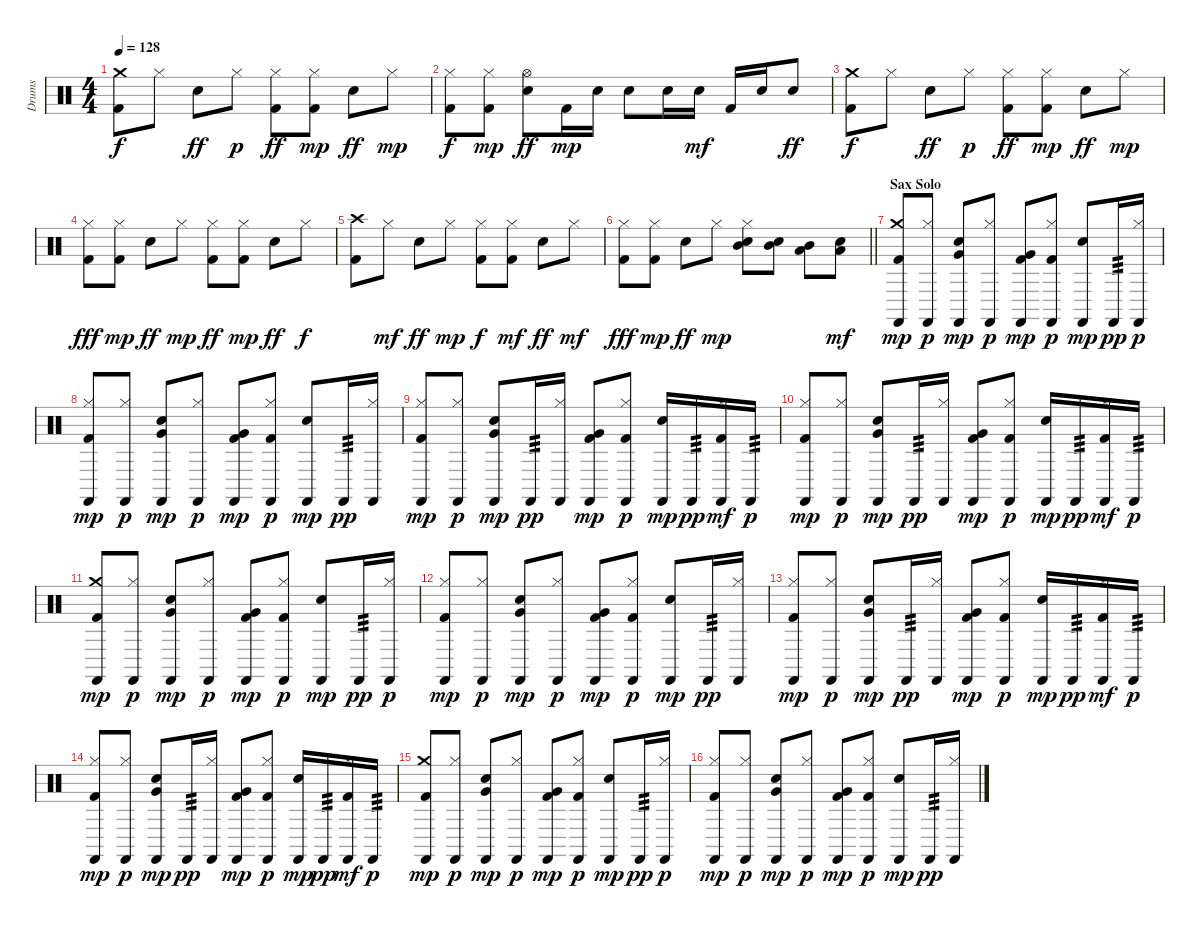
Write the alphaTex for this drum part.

\track ("Drums" "Drums") {instrument percussion}
\staff {score}
\articulation defaults
\ts (4 4)
\tempo 128
\clef neutral
\ks c
("Kick (hit) 2" "Crash medium (hit)").8{dy f} "Hi-Hat (closed)".8 "Electric Snare (hit)".8{dy ff} "Hi-Hat (closed)".8{dy p} ("Kick (hit) 2" "Hi-Hat (closed)").8{dy ff} ("Kick (hit) 2" "Hi-Hat (closed)").8{dy mp} "Electric Snare (hit)".8{dy ff} "Hi-Hat (closed)".8{dy mp} |
("Kick (hit) 2" "Hi-Hat (closed)").8{dy f} ("Kick (hit) 2" "Hi-Hat (closed)").8{dy mp} ("Electric Snare (hit)" "Hi-Hat (open)").8{dy ff} "Kick (hit) 2".16{dy mp} "Electric Snare (hit)".16 "Electric Snare (hit)".8 "Electric Snare (hit)".16 "Electric Snare (hit)".16{dy mf} "Kick (hit) 2".16 "Electric Snare (hit)".16 "Electric Snare (hit)".8{dy ff} |
("Kick (hit) 2" "Crash medium (hit)").8{dy f} "Hi-Hat (closed)".8 "Electric Snare (hit)".8{dy ff} "Hi-Hat (closed)".8{dy p} ("Kick (hit) 2" "Hi-Hat (closed)").8{dy ff} ("Kick (hit) 2" "Hi-Hat (closed)").8{dy mp} "Electric Snare (hit)".8{dy ff} "Hi-Hat (closed)".8{dy mp} |
("Kick (hit) 2" "Hi-Hat (closed)").8{dy fff} ("Kick (hit) 2" "Hi-Hat (closed)").8{dy mp} "Electric Snare (hit)".8{dy ff} "Hi-Hat (closed)".8{dy mp} ("Kick (hit) 2" "Hi-Hat (closed)").8{dy ff} ("Kick (hit) 2" "Hi-Hat (closed)").8{dy mp} "Electric Snare (hit)".8{dy ff} "Hi-Hat (closed)".8{dy f} |
("Kick (hit) 2" "Crash high (hit)").8 "Hi-Hat (closed)".8{dy mf} "Electric Snare (hit)".8{dy ff} "Hi-Hat (closed)".8{dy mp} ("Kick (hit) 2" "Hi-Hat (closed)").8{dy f} ("Kick (hit) 2" "Hi-Hat (closed)").8{dy mf} "Electric Snare (hit)".8{dy ff} "Hi-Hat (closed)".8{dy mf} |
\barLineRight lightlight
("Kick (hit) 2" "Hi-Hat (closed)").8{dy fff} ("Kick (hit) 2" "Hi-Hat (closed)").8{dy mp} "Electric Snare (hit)".8{dy ff} "Hi-Hat (closed)".8{dy mp} ("Electric Snare (hit)" "Hi-Hat (closed)" "Mid Tom (hit)").8 ("Electric Snare (hit)" "Mid Tom (hit)").8 ("Low Tom (hit)" "Mid Tom (hit)").8 ("Electric Snare (hit)" "Low Tom (hit)").8{dy mf} |
\section ("" "Sax Solo")
("Kick (hit) 2" "Crash medium (hit)" "Castanets (hit)").8{dy mp} ("Hi-Hat (closed)" "Castanets (hit)").8{dy p} ("Electric Snare (hit)" "Very Low Tom (hit)" "Castanets (hit)").8{dy mp} ("Hi-Hat (closed)" "Castanets (hit)").8{dy p} ("Kick (hit) 2" "Very Low Tom (hit)" "Castanets (hit)").8{dy mp} ("Kick (hit) 2" "Hi-Hat (closed)" "Castanets (hit)").8{dy p} ("Electric Snare (hit)" "Castanets (hit)").8{dy mp} "Castanets (hit)".16{tp 3 dy pp} ("Hi-Hat (closed)" "Castanets (hit)").16{dy p} |
("Kick (hit) 2" "Hi-Hat (closed)" "Castanets (hit)").8{dy mp} ("Hi-Hat (closed)" "Castanets (hit)").8{dy p} ("Electric Snare (hit)" "Very Low Tom (hit)" "Castanets (hit)").8{dy mp} ("Hi-Hat (closed)" "Castanets (hit)").8{dy p} ("Kick (hit) 2" "Very Low Tom (hit)" "Castanets (hit)").8{dy mp} ("Kick (hit) 2" "Hi-Hat (closed)" "Castanets (hit)").8{dy p} ("Electric Snare (hit)" "Castanets (hit)").8{dy mp} "Castanets (hit)".16{tp 3 dy pp} ("Hi-Hat (closed)" "Castanets (hit)").16 |
("Kick (hit) 2" "Hi-Hat (closed)" "Castanets (hit)").8{dy mp} ("Hi-Hat (closed)" "Castanets (hit)").8{dy p} ("Electric Snare (hit)" "Very Low Tom (hit)" "Castanets (hit)").8{dy mp} "Castanets (hit)".16{tp 3 dy pp} ("Hi-Hat (closed)" "Castanets (hit)").16 ("Kick (hit) 2" "Very Low Tom (hit)" "Castanets (hit)").8{dy mp} ("Kick (hit) 2" "Hi-Hat (closed)" "Castanets (hit)").8{dy p} ("Electric Snare (hit)" "Castanets (hit)").16{dy mp} "Castanets (hit)".16{tp 3 dy pp} ("Kick (hit) 2" "Hi-Hat (closed)" "Castanets (hit)").16{dy mf} "Castanets (hit)".16{tp 3 dy p} |
("Kick (hit) 2" "Hi-Hat (closed)" "Castanets (hit)").8{dy mp} ("Hi-Hat (closed)" "Castanets (hit)").8{dy p} ("Electric Snare (hit)" "Very Low Tom (hit)" "Castanets (hit)").8{dy mp} "Castanets (hit)".16{tp 3 dy pp} ("Hi-Hat (closed)" "Castanets (hit)").16 ("Kick (hit) 2" "Very Low Tom (hit)" "Castanets (hit)").8{dy mp} ("Kick (hit) 2" "Hi-Hat (closed)" "Castanets (hit)").8{dy p} ("Electric Snare (hit)" "Castanets (hit)").16{dy mp} "Castanets (hit)".16{tp 3 dy pp} ("Kick (hit) 2" "Hi-Hat (closed)" "Castanets (hit)").16{dy mf} "Castanets (hit)".16{tp 3 dy p} |
("Kick (hit) 2" "Crash medium (hit)" "Castanets (hit)").8{dy mp} ("Hi-Hat (closed)" "Castanets (hit)").8{dy p} ("Electric Snare (hit)" "Very Low Tom (hit)" "Castanets (hit)").8{dy mp} ("Hi-Hat (closed)" "Castanets (hit)").8{dy p} ("Kick (hit) 2" "Very Low Tom (hit)" "Castanets (hit)").8{dy mp} ("Kick (hit) 2" "Hi-Hat (closed)" "Castanets (hit)").8{dy p} ("Electric Snare (hit)" "Castanets (hit)").8{dy mp} "Castanets (hit)".16{tp 3 dy pp} ("Hi-Hat (closed)" "Castanets (hit)").16{dy p} |
("Kick (hit) 2" "Hi-Hat (closed)" "Castanets (hit)").8{dy mp} ("Hi-Hat (closed)" "Castanets (hit)").8{dy p} ("Electric Snare (hit)" "Very Low Tom (hit)" "Castanets (hit)").8{dy mp} ("Hi-Hat (closed)" "Castanets (hit)").8{dy p} ("Kick (hit) 2" "Very Low Tom (hit)" "Castanets (hit)").8{dy mp} ("Kick (hit) 2" "Hi-Hat (closed)" "Castanets (hit)").8{dy p} ("Electric Snare (hit)" "Castanets (hit)").8{dy mp} "Castanets (hit)".16{tp 3 dy pp} ("Hi-Hat (closed)" "Castanets (hit)").16 |
("Kick (hit) 2" "Hi-Hat (closed)" "Castanets (hit)").8{dy mp} ("Hi-Hat (closed)" "Castanets (hit)").8{dy p} ("Electric Snare (hit)" "Very Low Tom (hit)" "Castanets (hit)").8{dy mp} "Castanets (hit)".16{tp 3 dy pp} ("Hi-Hat (closed)" "Castanets (hit)").16 ("Kick (hit) 2" "Very Low Tom (hit)" "Castanets (hit)").8{dy mp} ("Kick (hit) 2" "Hi-Hat (closed)" "Castanets (hit)").8{dy p} ("Electric Snare (hit)" "Castanets (hit)").16{dy mp} "Castanets (hit)".16{tp 3 dy pp} ("Kick (hit) 2" "Hi-Hat (closed)" "Castanets (hit)").16{dy mf} "Castanets (hit)".16{tp 3 dy p} |
("Kick (hit) 2" "Hi-Hat (closed)" "Castanets (hit)").8{dy mp} ("Hi-Hat (closed)" "Castanets (hit)").8{dy p} ("Electric Snare (hit)" "Very Low Tom (hit)" "Castanets (hit)").8{dy mp} "Castanets (hit)".16{tp 3 dy pp} ("Hi-Hat (closed)" "Castanets (hit)").16 ("Kick (hit) 2" "Very Low Tom (hit)" "Castanets (hit)").8{dy mp} ("Kick (hit) 2" "Hi-Hat (closed)" "Castanets (hit)").8{dy p} ("Electric Snare (hit)" "Castanets (hit)").16{dy mp} "Castanets (hit)".16{tp 3 dy pp} ("Kick (hit) 2" "Hi-Hat (closed)" "Castanets (hit)").16{dy mf} "Castanets (hit)".16{tp 3 dy p} |
("Kick (hit) 2" "Crash medium (hit)" "Castanets (hit)").8{dy mp} ("Hi-Hat (closed)" "Castanets (hit)").8{dy p} ("Electric Snare (hit)" "Very Low Tom (hit)" "Castanets (hit)").8{dy mp} ("Hi-Hat (closed)" "Castanets (hit)").8{dy p} ("Kick (hit) 2" "Very Low Tom (hit)" "Castanets (hit)").8{dy mp} ("Kick (hit) 2" "Hi-Hat (closed)" "Castanets (hit)").8{dy p} ("Electric Snare (hit)" "Castanets (hit)").8{dy mp} "Castanets (hit)".16{tp 3 dy pp} ("Hi-Hat (closed)" "Castanets (hit)").16{dy p} |
("Kick (hit) 2" "Hi-Hat (closed)" "Castanets (hit)").8{dy mp} ("Hi-Hat (closed)" "Castanets (hit)").8{dy p} ("Electric Snare (hit)" "Very Low Tom (hit)" "Castanets (hit)").8{dy mp} ("Hi-Hat (closed)" "Castanets (hit)").8{dy p} ("Kick (hit) 2" "Very Low Tom (hit)" "Castanets (hit)").8{dy mp} ("Kick (hit) 2" "Hi-Hat (closed)" "Castanets (hit)").8{dy p} ("Electric Snare (hit)" "Castanets (hit)").8{dy mp} "Castanets (hit)".16{tp 3 dy pp} ("Hi-Hat (closed)" "Castanets (hit)").16
